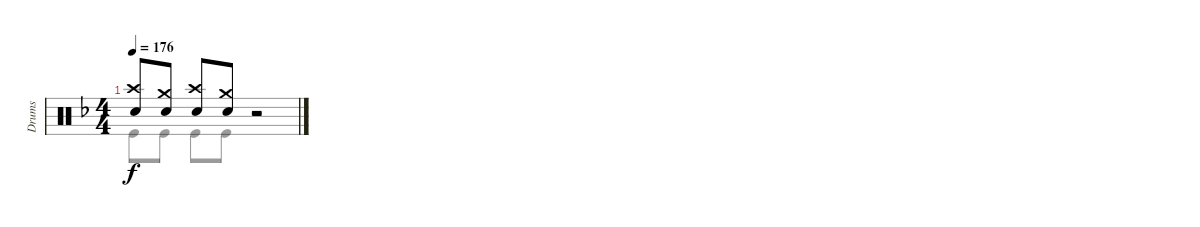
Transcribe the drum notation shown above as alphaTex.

\track ("Drums" "Drums") {instrument percussion}
\staff {score}
\articulation defaults
\voice
\ts (4 4)
\tempo 176
\clef neutral
\ks f
("Crash high (hit)" "Snare (hit) 2").8{dy f} ("Crash medium (hit)" "Snare (hit) 2").8 ("Crash high (hit)" "Snare (hit) 2").8 ("Crash medium (hit)" "Snare (hit) 2").8 r.2
\voice
\clef neutral
\ottava regular
\simile none
\ks f "Kick (hit)".8{dy f} "Kick (hit)".8 "Kick (hit)".8 "Kick (hit)".8
r.2
